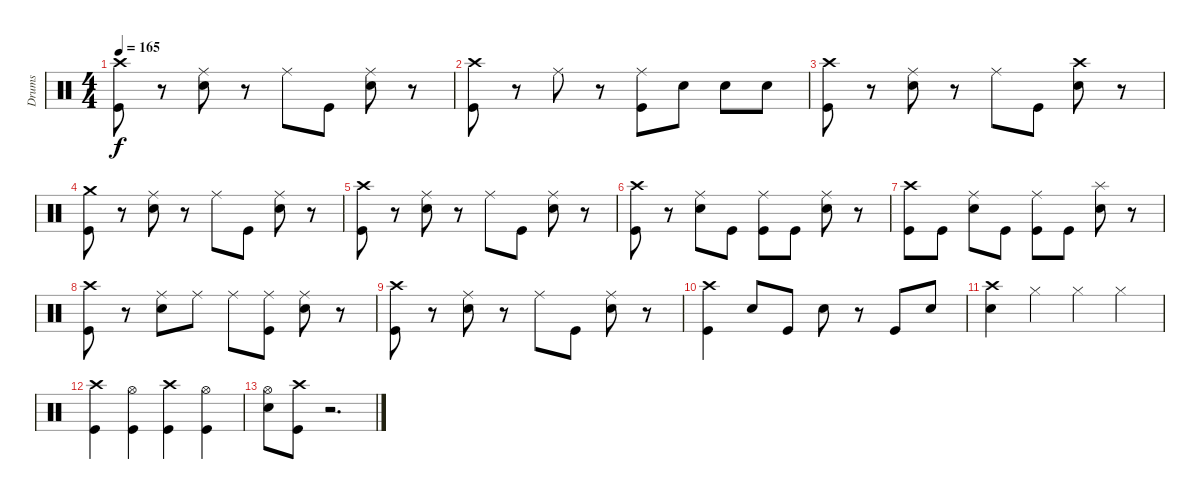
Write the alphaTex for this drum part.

\track ("Drums" "Drums") {instrument percussion}
\staff {score}
\articulation defaults
\ts (4 4)
\tempo 165
\clef neutral
\ks c
("Crash high (hit)" "Kick (hit)").8{dy f} r.8 ("Ride (middle)" "Snare (hit) 2").8 r.8 "Ride (middle)".8 "Kick (hit)".8 ("Ride (middle)" "Snare (hit) 2").8 r.8 |
("Crash high (hit)" "Kick (hit)").8 r.8 "Ride (middle)".8 r.8 ("Ride (middle)" "Kick (hit)").8 "Snare (hit) 2".8 "Snare (hit) 2".8 "Snare (hit) 2".8 |
("Crash high (hit)" "Kick (hit)").8 r.8 ("Ride (middle)" "Snare (hit) 2").8 r.8 "Ride (middle)".8 "Kick (hit)".8 ("Crash high (hit)" "Snare (hit) 2").8 r.8 |
("Crash medium (hit)" "Kick (hit)").8 r.8 ("Ride (middle)" "Snare (hit) 2").8 r.8 "Ride (middle)".8 "Kick (hit)".8 ("Ride (middle)" "Snare (hit) 2").8 r.8 |
("Crash high (hit)" "Kick (hit)").8 r.8 ("Ride (middle)" "Snare (hit) 2").8 r.8 "Ride (middle)".8 "Kick (hit)".8 ("Ride (middle)" "Snare (hit) 2").8 r.8 |
("Crash high (hit)" "Kick (hit)").8 r.8 ("Ride (middle)" "Snare (hit) 2").8 "Kick (hit)".8 ("Ride (middle)" "Kick (hit)").8 "Kick (hit)".8 ("Ride (middle)" "Snare (hit) 2").8 r.8 |
("Crash high (hit)" "Kick (hit)").8 "Kick (hit)".8 ("Ride (middle)" "Snare (hit) 2").8 "Kick (hit)".8 ("Ride (middle)" "Kick (hit)").8 "Kick (hit)".8 ("Splash (hit)" "Snare (hit) 2").8 r.8 |
("Crash high (hit)" "Kick (hit)").8 r.8 ("Ride (middle)" "Snare (hit) 2").8 "Ride (middle)".8 "Ride (middle)".8 ("Ride (middle)" "Kick (hit)").8 ("Ride (middle)" "Snare (hit) 2").8 r.8 |
("Crash high (hit)" "Kick (hit)").8 r.8 ("Ride (middle)" "Snare (hit) 2").8 r.8 "Ride (middle)".8 "Kick (hit)".8 ("Ride (middle)" "Snare (hit) 2").8 r.8 |
("Crash high (hit)" "Kick (hit)").4 "Snare (hit) 2".8 "Kick (hit)".8 "Snare (hit) 2".8 r.8 "Kick (hit)".8 "Snare (hit) 2".8 |
("Crash high (hit)" "Snare (hit) 2").4 "Hi-Hat (closed)".4 "Hi-Hat (closed)".4 "Hi-Hat (closed)".4 |
("Crash high (hit)" "Kick (hit)").4 ("Hi-Hat (open)" "Kick (hit)").4 ("Crash high (hit)" "Kick (hit)").4 ("Hi-Hat (open)" "Kick (hit)").4 |
("Hi-Hat (open)" "Snare (hit) 2").8 ("Crash high (hit)" "Kick (hit)").8 r.2{d}
